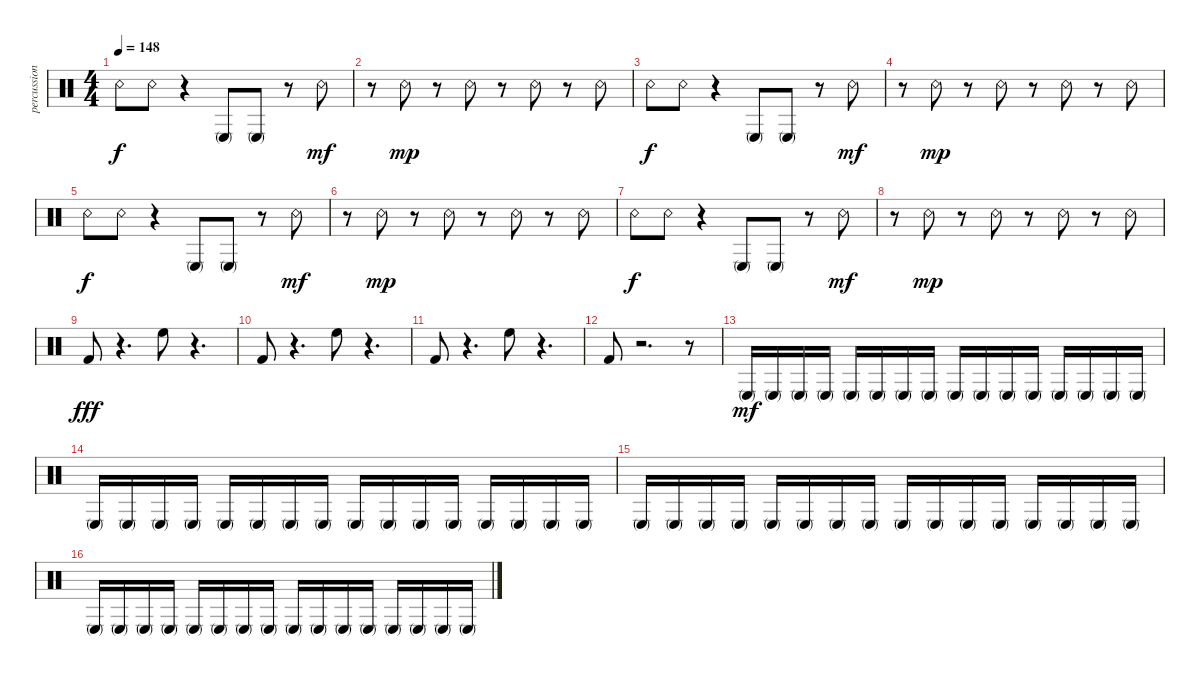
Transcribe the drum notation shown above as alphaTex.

\track ("percussion fx 2" "percussion") {instrument percussion}
\staff {score}
\articulation defaults
\ts (4 4)
\tempo 148
\clef neutral
\ks c "Snare (rim shot)".8{dy f} "Snare (rim shot)".8
r.4 "Conga low (mute)".8 "Conga low (mute)".8 r.8 "Snare (rim shot)".8{dy mf} |
r.8 "Snare (rim shot)".8{dy mp} r.8 "Snare (rim shot)".8 r.8 "Snare (rim shot)".8 r.8 "Snare (rim shot)".8 |
"Snare (rim shot)".8{dy f} "Snare (rim shot)".8 r.4 "Conga low (mute)".8 "Conga low (mute)".8 r.8 "Snare (rim shot)".8{dy mf} |
r.8 "Snare (rim shot)".8{dy mp} r.8 "Snare (rim shot)".8 r.8 "Snare (rim shot)".8 r.8 "Snare (rim shot)".8 |
"Snare (rim shot)".8{dy f} "Snare (rim shot)".8 r.4 "Conga low (mute)".8 "Conga low (mute)".8 r.8 "Snare (rim shot)".8{dy mf} |
r.8 "Snare (rim shot)".8{dy mp} r.8 "Snare (rim shot)".8 r.8 "Snare (rim shot)".8 r.8 "Snare (rim shot)".8 |
"Snare (rim shot)".8{dy f} "Snare (rim shot)".8 r.4 "Conga low (mute)".8 "Conga low (mute)".8 r.8 "Snare (rim shot)".8{dy mf} |
r.8 "Snare (rim shot)".8{dy mp} r.8 "Snare (rim shot)".8 r.8 "Snare (rim shot)".8 r.8 "Snare (rim shot)".8 |
"Kick (hit) 2".8{dy fff} r.4{d} "High Floor Tom (hit)".8 r.4{d} |
"Kick (hit) 2".8 r.4{d} "High Floor Tom (hit)".8 r.4{d} |
"Kick (hit) 2".8 r.4{d} "High Floor Tom (hit)".8 r.4{d} |
"Kick (hit) 2".8 r.2{d} r.8 |
"Conga low (mute)".16{dy mf} "Conga low (mute)".16 "Conga low (mute)".16 "Conga low (mute)".16 "Conga low (mute)".16 "Conga low (mute)".16 "Conga low (mute)".16 "Conga low (mute)".16 "Conga low (mute)".16 "Conga low (mute)".16 "Conga low (mute)".16 "Conga low (mute)".16 "Conga low (mute)".16 "Conga low (mute)".16 "Conga low (mute)".16 "Conga low (mute)".16 |
"Conga low (mute)".16 "Conga low (mute)".16 "Conga low (mute)".16 "Conga low (mute)".16 "Conga low (mute)".16 "Conga low (mute)".16 "Conga low (mute)".16 "Conga low (mute)".16 "Conga low (mute)".16 "Conga low (mute)".16 "Conga low (mute)".16 "Conga low (mute)".16 "Conga low (mute)".16 "Conga low (mute)".16 "Conga low (mute)".16 "Conga low (mute)".16 |
"Conga low (mute)".16 "Conga low (mute)".16 "Conga low (mute)".16 "Conga low (mute)".16 "Conga low (mute)".16 "Conga low (mute)".16 "Conga low (mute)".16 "Conga low (mute)".16 "Conga low (mute)".16 "Conga low (mute)".16 "Conga low (mute)".16 "Conga low (mute)".16 "Conga low (mute)".16 "Conga low (mute)".16 "Conga low (mute)".16 "Conga low (mute)".16 |
"Conga low (mute)".16 "Conga low (mute)".16 "Conga low (mute)".16 "Conga low (mute)".16 "Conga low (mute)".16 "Conga low (mute)".16 "Conga low (mute)".16 "Conga low (mute)".16 "Conga low (mute)".16 "Conga low (mute)".16 "Conga low (mute)".16 "Conga low (mute)".16 "Conga low (mute)".16 "Conga low (mute)".16 "Conga low (mute)".16 "Conga low (mute)".16
